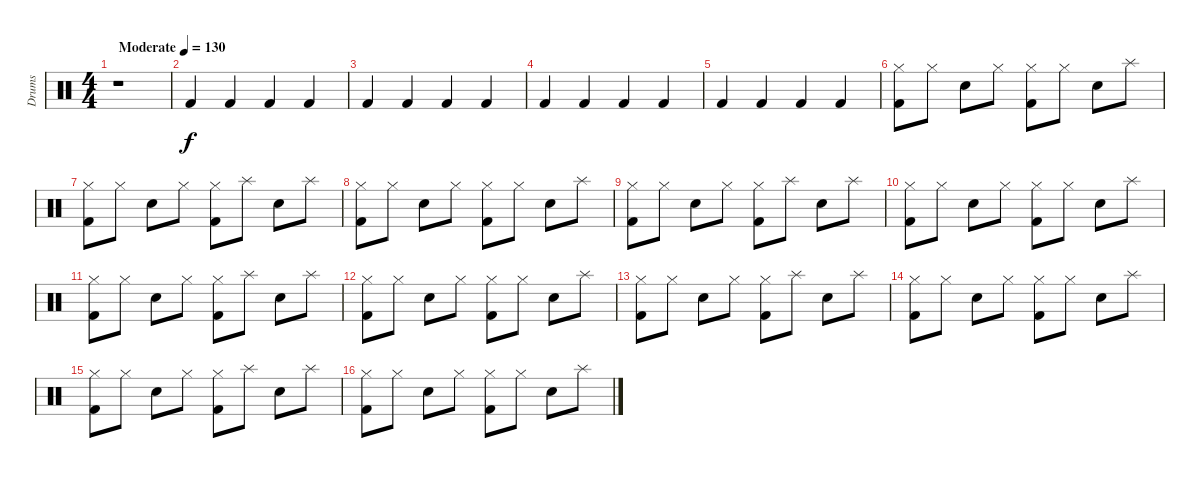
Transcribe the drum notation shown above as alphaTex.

\track ("Drums" "Drums") {instrument percussion}
\staff {score}
\articulation defaults
\ts (4 4)
\tempo (130 "Moderate")
\clef neutral
\ks c
r.1{dy f} |
"Kick (hit) 2".4 "Kick (hit) 2".4 "Kick (hit) 2".4 "Kick (hit) 2".4 |
"Kick (hit) 2".4 "Kick (hit) 2".4 "Kick (hit) 2".4 "Kick (hit) 2".4 |
"Kick (hit) 2".4 "Kick (hit) 2".4 "Kick (hit) 2".4 "Kick (hit) 2".4 |
"Kick (hit) 2".4 "Kick (hit) 2".4 "Kick (hit) 2".4 "Kick (hit) 2".4 |
("Hi-Hat (closed)" "Kick (hit) 2").8 "Hi-Hat (closed)".8 "Snare (hit) 2".8 "Hi-Hat (closed)".8 ("Hi-Hat (closed)" "Kick (hit) 2").8 "Hi-Hat (closed)".8 "Snare (hit) 2".8 "Splash (hit)".8 |
("Hi-Hat (closed)" "Kick (hit) 2").8 "Hi-Hat (closed)".8 "Snare (hit) 2".8 "Hi-Hat (closed)".8 ("Hi-Hat (closed)" "Kick (hit) 2").8 "Splash (hit)".8 "Snare (hit) 2".8 "Splash (hit)".8 |
("Hi-Hat (closed)" "Kick (hit) 2").8 "Hi-Hat (closed)".8 "Snare (hit) 2".8 "Hi-Hat (closed)".8 ("Hi-Hat (closed)" "Kick (hit) 2").8 "Hi-Hat (closed)".8 "Snare (hit) 2".8 "Splash (hit)".8 |
("Hi-Hat (closed)" "Kick (hit) 2").8 "Hi-Hat (closed)".8 "Snare (hit) 2".8 "Hi-Hat (closed)".8 ("Hi-Hat (closed)" "Kick (hit) 2").8 "Splash (hit)".8 "Snare (hit) 2".8 "Splash (hit)".8 |
("Hi-Hat (closed)" "Kick (hit) 2").8 "Hi-Hat (closed)".8 "Snare (hit) 2".8 "Hi-Hat (closed)".8 ("Hi-Hat (closed)" "Kick (hit) 2").8 "Hi-Hat (closed)".8 "Snare (hit) 2".8 "Splash (hit)".8 |
("Hi-Hat (closed)" "Kick (hit) 2").8 "Hi-Hat (closed)".8 "Snare (hit) 2".8 "Hi-Hat (closed)".8 ("Hi-Hat (closed)" "Kick (hit) 2").8 "Splash (hit)".8 "Snare (hit) 2".8 "Splash (hit)".8 |
("Hi-Hat (closed)" "Kick (hit) 2").8 "Hi-Hat (closed)".8 "Snare (hit) 2".8 "Hi-Hat (closed)".8 ("Hi-Hat (closed)" "Kick (hit) 2").8 "Hi-Hat (closed)".8 "Snare (hit) 2".8 "Splash (hit)".8 |
("Hi-Hat (closed)" "Kick (hit) 2").8 "Hi-Hat (closed)".8 "Snare (hit) 2".8 "Hi-Hat (closed)".8 ("Hi-Hat (closed)" "Kick (hit) 2").8 "Splash (hit)".8 "Snare (hit) 2".8 "Splash (hit)".8 |
("Hi-Hat (closed)" "Kick (hit) 2").8 "Hi-Hat (closed)".8 "Snare (hit) 2".8 "Hi-Hat (closed)".8 ("Hi-Hat (closed)" "Kick (hit) 2").8 "Hi-Hat (closed)".8 "Snare (hit) 2".8 "Splash (hit)".8 |
("Hi-Hat (closed)" "Kick (hit) 2").8 "Hi-Hat (closed)".8 "Snare (hit) 2".8 "Hi-Hat (closed)".8 ("Hi-Hat (closed)" "Kick (hit) 2").8 "Splash (hit)".8 "Snare (hit) 2".8 "Splash (hit)".8 |
("Hi-Hat (closed)" "Kick (hit) 2").8 "Hi-Hat (closed)".8 "Snare (hit) 2".8 "Hi-Hat (closed)".8 ("Hi-Hat (closed)" "Kick (hit) 2").8 "Hi-Hat (closed)".8 "Snare (hit) 2".8 "Splash (hit)".8
